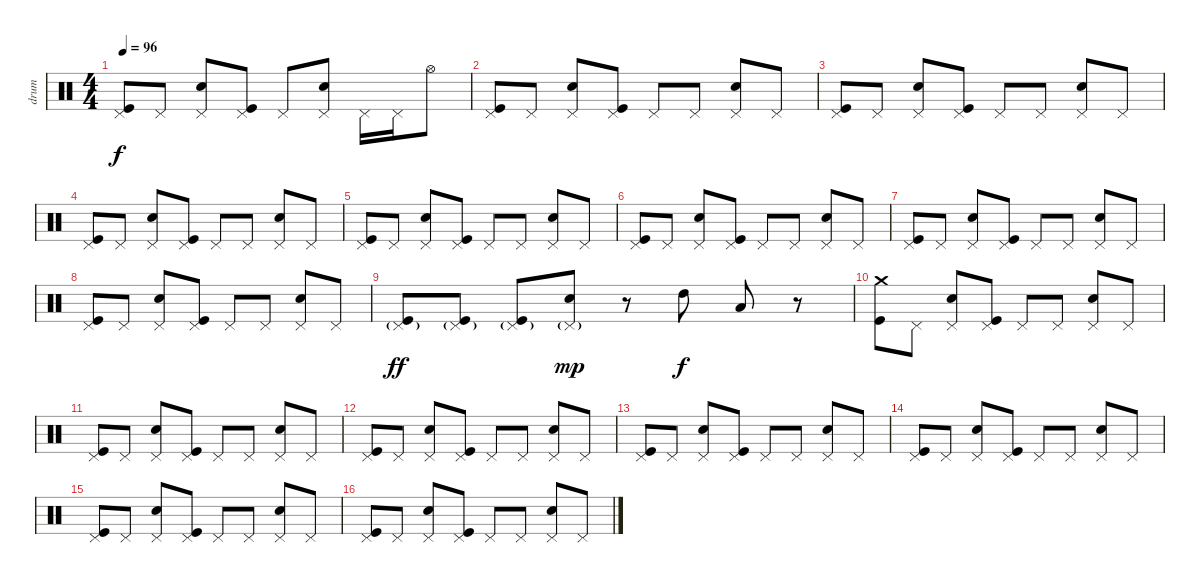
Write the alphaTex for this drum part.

\track ("drum" "drum") {instrument percussion}
\staff {score}
\articulation defaults
\ts (4 4)
\tempo 96
\clef neutral
\ks c
("Pedal Hi-Hat (hit)" "Kick (hit)").8{dy f} "Pedal Hi-Hat (hit)".8 ("Pedal Hi-Hat (hit)" "Electric Snare (hit)").8 ("Pedal Hi-Hat (hit)" "Kick (hit)").8 "Pedal Hi-Hat (hit)".8 ("Pedal Hi-Hat (hit)" "Electric Snare (hit)").8 "Pedal Hi-Hat (hit)".16 "Pedal Hi-Hat (hit)".16 "Hi-Hat (open)".8 |
("Pedal Hi-Hat (hit)" "Kick (hit)").8 "Pedal Hi-Hat (hit)".8 ("Pedal Hi-Hat (hit)" "Electric Snare (hit)").8 ("Pedal Hi-Hat (hit)" "Kick (hit)").8 "Pedal Hi-Hat (hit)".8 "Pedal Hi-Hat (hit)".8 ("Pedal Hi-Hat (hit)" "Electric Snare (hit)").8 "Pedal Hi-Hat (hit)".8 |
("Pedal Hi-Hat (hit)" "Kick (hit)").8 "Pedal Hi-Hat (hit)".8 ("Pedal Hi-Hat (hit)" "Electric Snare (hit)").8 ("Pedal Hi-Hat (hit)" "Kick (hit)").8 "Pedal Hi-Hat (hit)".8 "Pedal Hi-Hat (hit)".8 ("Pedal Hi-Hat (hit)" "Electric Snare (hit)").8 "Pedal Hi-Hat (hit)".8 |
("Pedal Hi-Hat (hit)" "Kick (hit)").8 "Pedal Hi-Hat (hit)".8 ("Pedal Hi-Hat (hit)" "Electric Snare (hit)").8 ("Pedal Hi-Hat (hit)" "Kick (hit)").8 "Pedal Hi-Hat (hit)".8 "Pedal Hi-Hat (hit)".8 ("Pedal Hi-Hat (hit)" "Electric Snare (hit)").8 "Pedal Hi-Hat (hit)".8 |
("Pedal Hi-Hat (hit)" "Kick (hit)").8 "Pedal Hi-Hat (hit)".8 ("Pedal Hi-Hat (hit)" "Electric Snare (hit)").8 ("Pedal Hi-Hat (hit)" "Kick (hit)").8 "Pedal Hi-Hat (hit)".8 "Pedal Hi-Hat (hit)".8 ("Pedal Hi-Hat (hit)" "Electric Snare (hit)").8 "Pedal Hi-Hat (hit)".8 |
("Pedal Hi-Hat (hit)" "Kick (hit)").8 "Pedal Hi-Hat (hit)".8 ("Pedal Hi-Hat (hit)" "Electric Snare (hit)").8 ("Pedal Hi-Hat (hit)" "Kick (hit)").8 "Pedal Hi-Hat (hit)".8 "Pedal Hi-Hat (hit)".8 ("Pedal Hi-Hat (hit)" "Electric Snare (hit)").8 "Pedal Hi-Hat (hit)".8 |
("Pedal Hi-Hat (hit)" "Kick (hit)").8 "Pedal Hi-Hat (hit)".8 ("Pedal Hi-Hat (hit)" "Electric Snare (hit)").8 ("Pedal Hi-Hat (hit)" "Kick (hit)").8 "Pedal Hi-Hat (hit)".8 "Pedal Hi-Hat (hit)".8 ("Pedal Hi-Hat (hit)" "Electric Snare (hit)").8 "Pedal Hi-Hat (hit)".8 |
("Pedal Hi-Hat (hit)" "Kick (hit)").8 "Pedal Hi-Hat (hit)".8 ("Pedal Hi-Hat (hit)" "Electric Snare (hit)").8 ("Pedal Hi-Hat (hit)" "Kick (hit)").8 "Pedal Hi-Hat (hit)".8 "Pedal Hi-Hat (hit)".8 ("Pedal Hi-Hat (hit)" "Electric Snare (hit)").8 "Pedal Hi-Hat (hit)".8 |
("Pedal Hi-Hat (hit)"{g} "Kick (hit)").8{dy ff} ("Pedal Hi-Hat (hit)"{g} "Kick (hit)").8 ("Pedal Hi-Hat (hit)"{g} "Kick (hit)").8 ("Pedal Hi-Hat (hit)"{g} "Electric Snare (hit)").8{dy mp} r.8 "High Tom (hit)".8{dy f} "Low Tom (hit)".8 r.8 |
("Crash medium (hit)" "Kick (hit)").8 "Pedal Hi-Hat (hit)".8 ("Pedal Hi-Hat (hit)" "Electric Snare (hit)").8 ("Pedal Hi-Hat (hit)" "Kick (hit)").8 "Pedal Hi-Hat (hit)".8 "Pedal Hi-Hat (hit)".8 ("Pedal Hi-Hat (hit)" "Electric Snare (hit)").8 "Pedal Hi-Hat (hit)".8 |
("Pedal Hi-Hat (hit)" "Kick (hit)").8 "Pedal Hi-Hat (hit)".8 ("Pedal Hi-Hat (hit)" "Electric Snare (hit)").8 ("Pedal Hi-Hat (hit)" "Kick (hit)").8 "Pedal Hi-Hat (hit)".8 "Pedal Hi-Hat (hit)".8 ("Pedal Hi-Hat (hit)" "Electric Snare (hit)").8 "Pedal Hi-Hat (hit)".8 |
("Pedal Hi-Hat (hit)" "Kick (hit)").8 "Pedal Hi-Hat (hit)".8 ("Pedal Hi-Hat (hit)" "Electric Snare (hit)").8 ("Pedal Hi-Hat (hit)" "Kick (hit)").8 "Pedal Hi-Hat (hit)".8 "Pedal Hi-Hat (hit)".8 ("Pedal Hi-Hat (hit)" "Electric Snare (hit)").8 "Pedal Hi-Hat (hit)".8 |
("Pedal Hi-Hat (hit)" "Kick (hit)").8 "Pedal Hi-Hat (hit)".8 ("Pedal Hi-Hat (hit)" "Electric Snare (hit)").8 ("Pedal Hi-Hat (hit)" "Kick (hit)").8 "Pedal Hi-Hat (hit)".8 "Pedal Hi-Hat (hit)".8 ("Pedal Hi-Hat (hit)" "Electric Snare (hit)").8 "Pedal Hi-Hat (hit)".8 |
("Pedal Hi-Hat (hit)" "Kick (hit)").8 "Pedal Hi-Hat (hit)".8 ("Pedal Hi-Hat (hit)" "Electric Snare (hit)").8 ("Pedal Hi-Hat (hit)" "Kick (hit)").8 "Pedal Hi-Hat (hit)".8 "Pedal Hi-Hat (hit)".8 ("Pedal Hi-Hat (hit)" "Electric Snare (hit)").8 "Pedal Hi-Hat (hit)".8 |
("Pedal Hi-Hat (hit)" "Kick (hit)").8 "Pedal Hi-Hat (hit)".8 ("Pedal Hi-Hat (hit)" "Electric Snare (hit)").8 ("Pedal Hi-Hat (hit)" "Kick (hit)").8 "Pedal Hi-Hat (hit)".8 "Pedal Hi-Hat (hit)".8 ("Pedal Hi-Hat (hit)" "Electric Snare (hit)").8 "Pedal Hi-Hat (hit)".8 |
("Pedal Hi-Hat (hit)" "Kick (hit)").8 "Pedal Hi-Hat (hit)".8 ("Pedal Hi-Hat (hit)" "Electric Snare (hit)").8 ("Pedal Hi-Hat (hit)" "Kick (hit)").8 "Pedal Hi-Hat (hit)".8 "Pedal Hi-Hat (hit)".8 ("Pedal Hi-Hat (hit)" "Electric Snare (hit)").8 "Pedal Hi-Hat (hit)".8
